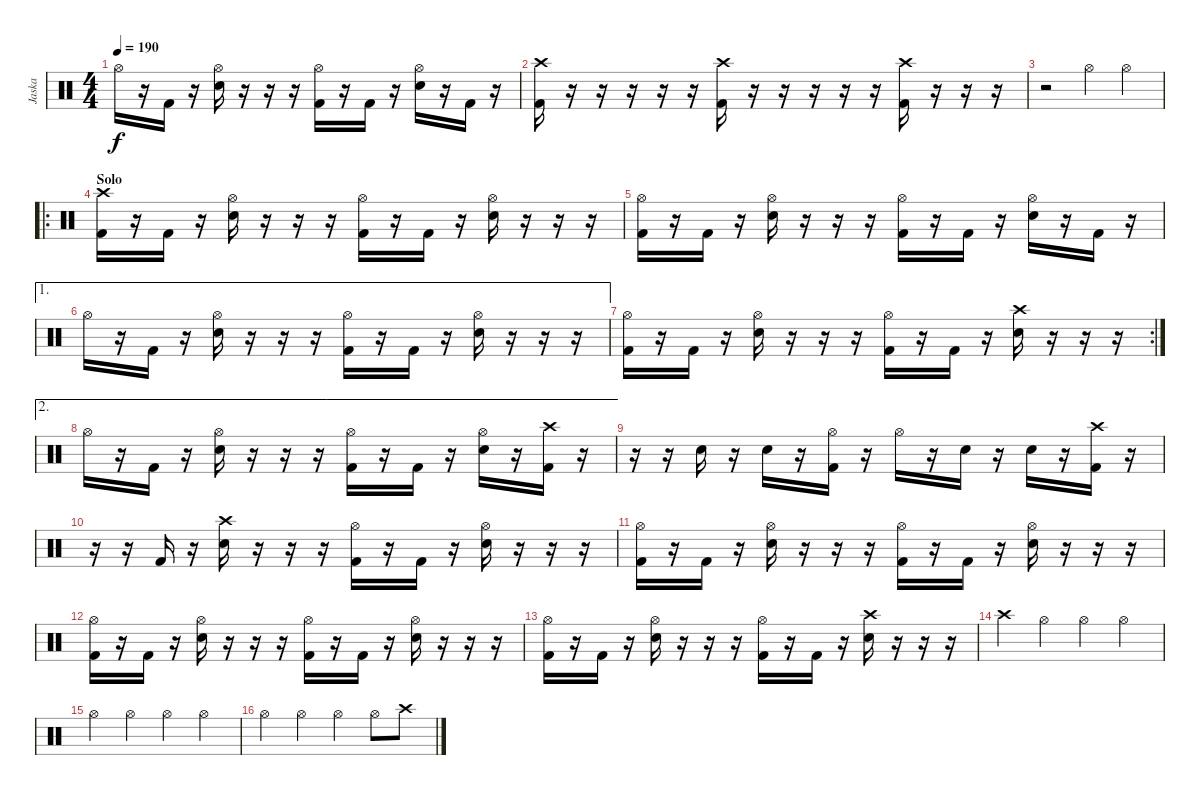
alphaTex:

\track ("Jaska" "Jaska") {instrument percussion}
\staff {score}
\articulation defaults
\ts (4 4)
\tempo 190
\clef neutral
\ks c "Hi-Hat (open)".16{dy f}
r.16 "Kick (hit) 2".16 r.16 ("Hi-Hat (open)" "Electric Snare (hit)").16 r.16 r.16 r.16 ("Hi-Hat (open)" "Kick (hit) 2").16 r.16 "Kick (hit) 2".16 r.16 ("Hi-Hat (open)" "Electric Snare (hit)").16 r.16 "Kick (hit) 2".16 r.16 |
("Crash high (hit)" "Kick (hit) 2").16 r.16 r.16 r.16 r.16 r.16 ("Crash high (hit)" "Kick (hit) 2").16 r.16 r.16 r.16 r.16 r.16 ("Crash high (hit)" "Kick (hit) 2").16 r.16 r.16 r.16 |
r.2 "Hi-Hat (open)".4 "Hi-Hat (open)".4 |
\ro
\section ("" "Solo")
("Crash high (hit)" "Kick (hit) 2").16 r.16 "Kick (hit) 2".16 r.16 ("Hi-Hat (open)" "Electric Snare (hit)").16 r.16 r.16 r.16 ("Hi-Hat (open)" "Kick (hit) 2").16 r.16 "Kick (hit) 2".16 r.16 ("Hi-Hat (open)" "Electric Snare (hit)").16 r.16 r.16 r.16 |
("Hi-Hat (open)" "Kick (hit) 2").16 r.16 "Kick (hit) 2".16 r.16 ("Hi-Hat (open)" "Electric Snare (hit)").16 r.16 r.16 r.16 ("Hi-Hat (open)" "Kick (hit) 2").16 r.16 "Kick (hit) 2".16 r.16 ("Hi-Hat (open)" "Electric Snare (hit)").16 r.16 "Kick (hit) 2".16 r.16 |
\ae 1 "Hi-Hat (open)".16
r.16 "Kick (hit) 2".16 r.16 ("Hi-Hat (open)" "Electric Snare (hit)").16 r.16 r.16 r.16 ("Hi-Hat (open)" "Kick (hit) 2").16 r.16 "Kick (hit) 2".16 r.16 ("Hi-Hat (open)" "Electric Snare (hit)").16 r.16 r.16 r.16 |
\rc 2
("Hi-Hat (open)" "Kick (hit) 2").16 r.16 "Kick (hit) 2".16 r.16 ("Hi-Hat (open)" "Electric Snare (hit)").16 r.16 r.16 r.16 ("Hi-Hat (open)" "Kick (hit) 2").16 r.16 "Kick (hit) 2".16 r.16 ("Crash high (hit)" "Electric Snare (hit)").16 r.16 r.16 r.16 |
\ae 2 "Hi-Hat (open)".16
r.16 "Kick (hit) 2".16 r.16 ("Hi-Hat (open)" "Electric Snare (hit)").16 r.16 r.16 r.16 ("Hi-Hat (open)" "Kick (hit) 2").16 r.16 "Kick (hit) 2".16 r.16 ("Hi-Hat (open)" "Electric Snare (hit)").16 r.16 ("Crash high (hit)" "Kick (hit) 2").16 r.16 |
r.16 r.16 "Electric Snare (hit)".16 r.16 "Electric Snare (hit)".16 r.16 ("Hi-Hat (open)" "Kick (hit) 2").16 r.16 "Hi-Hat (open)".16 r.16 "Electric Snare (hit)".16 r.16 "Electric Snare (hit)".16 r.16 ("Crash high (hit)" "Kick (hit) 2").16 r.16 |
r.16 r.16 "Kick (hit) 2".16 r.16 ("Crash high (hit)" "Electric Snare (hit)").16 r.16 r.16 r.16 ("Hi-Hat (open)" "Kick (hit) 2").16 r.16 "Kick (hit) 2".16 r.16 ("Hi-Hat (open)" "Electric Snare (hit)").16 r.16 r.16 r.16 |
("Hi-Hat (open)" "Kick (hit) 2").16 r.16 "Kick (hit) 2".16 r.16 ("Hi-Hat (open)" "Electric Snare (hit)").16 r.16 r.16 r.16 ("Hi-Hat (open)" "Kick (hit) 2").16 r.16 "Kick (hit) 2".16 r.16 ("Hi-Hat (open)" "Electric Snare (hit)").16 r.16 r.16 r.16 |
("Hi-Hat (open)" "Kick (hit) 2").16 r.16 "Kick (hit) 2".16 r.16 ("Hi-Hat (open)" "Electric Snare (hit)").16 r.16 r.16 r.16 ("Hi-Hat (open)" "Kick (hit) 2").16 r.16 "Kick (hit) 2".16 r.16 ("Hi-Hat (open)" "Electric Snare (hit)").16 r.16 r.16 r.16 |
("Hi-Hat (open)" "Kick (hit) 2").16 r.16 "Kick (hit) 2".16 r.16 ("Hi-Hat (open)" "Electric Snare (hit)").16 r.16 r.16 r.16 ("Hi-Hat (open)" "Kick (hit) 2").16 r.16 "Kick (hit) 2".16 r.16 ("Crash high (hit)" "Electric Snare (hit)").16 r.16 r.16 r.16 |
"Crash high (hit)".4 "Hi-Hat (open)".4 "Hi-Hat (open)".4 "Hi-Hat (open)".4 |
"Hi-Hat (open)".4 "Hi-Hat (open)".4 "Hi-Hat (open)".4 "Hi-Hat (open)".4 |
"Hi-Hat (open)".4 "Hi-Hat (open)".4 "Hi-Hat (open)".4 "Hi-Hat (open)".8 "Crash high (hit)".8
